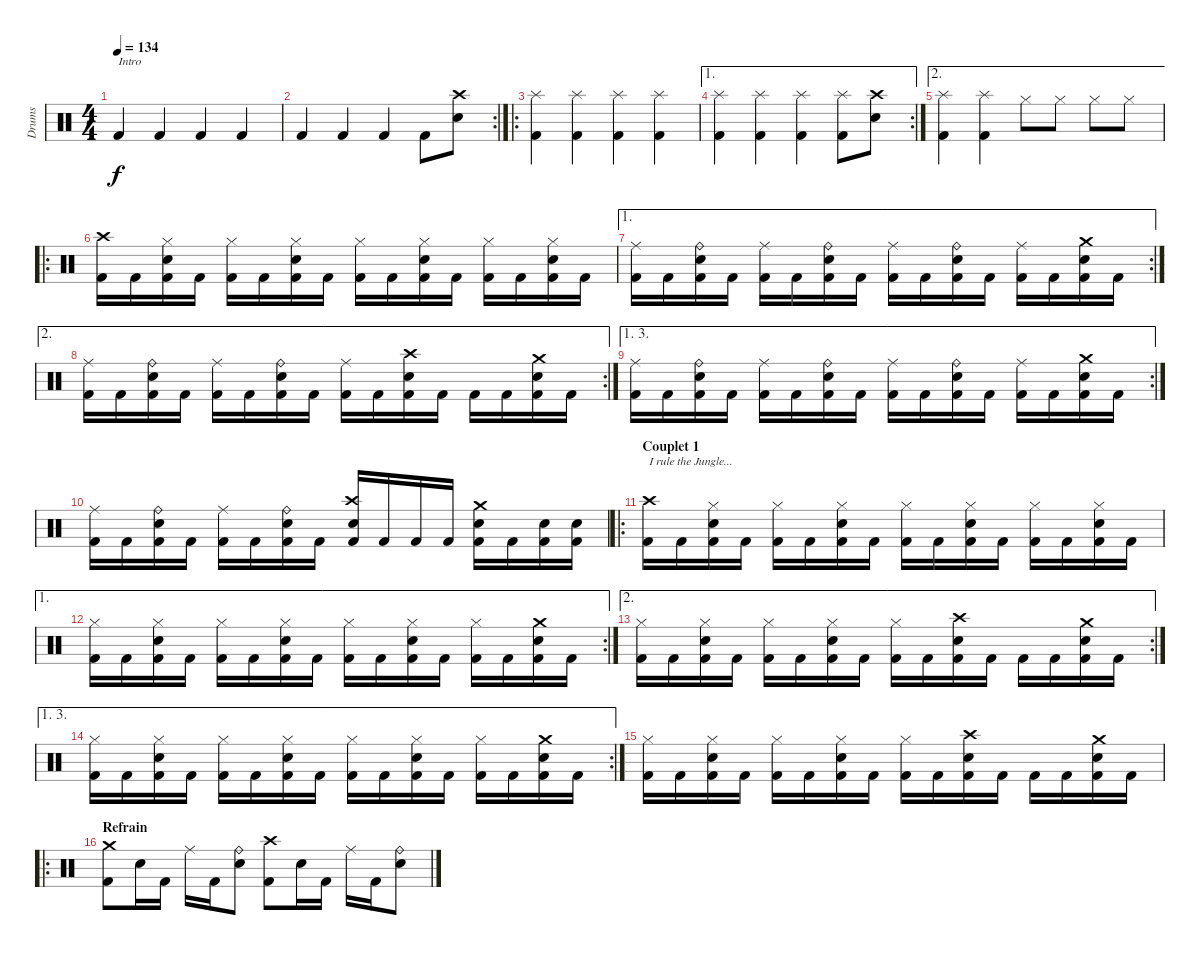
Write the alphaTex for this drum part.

\track ("Drums" "Drums") {instrument percussion}
\staff {score}
\articulation defaults
\ts (4 4)
\tempo 134
\clef neutral
\ks c "Kick (hit) 2".4{txt "Intro" dy f} "Kick (hit) 2".4 "Kick (hit) 2".4 "Kick (hit) 2".4
|
\rc 2 "Kick (hit) 2".4 "Kick (hit) 2".4 "Kick (hit) 2".4 "Kick (hit) 2".8
("Crash high (hit)" "Electric Snare (hit)").8 |
\ro
("Splash (hit)" "Kick (hit) 2").4 ("Splash (hit)" "Kick (hit) 2").4 ("Splash (hit)" "Kick (hit) 2").4 ("Splash (hit)" "Kick (hit) 2").4 |
\ae 1
\rc 2
("Splash (hit)" "Kick (hit) 2").4 ("Splash (hit)" "Kick (hit) 2").4 ("Splash (hit)" "Kick (hit) 2").4 ("Splash (hit)" "Kick (hit) 2").8 ("Crash high (hit)" "Electric Snare (hit)").8 |
\ae 2
("Splash (hit)" "Kick (hit) 2").4 ("Splash (hit)" "Kick (hit) 2").4 "Hi-Hat (closed)".8 "Hi-Hat (closed)".8 "Hi-Hat (closed)".8 "Hi-Hat (closed)".8 |
\ro
("Crash high (hit)" "Kick (hit) 2").16 "Kick (hit) 2".16 ("Hi-Hat (closed)" "Electric Snare (hit)" "Kick (hit) 2").16 "Kick (hit) 2".16 ("Hi-Hat (closed)" "Kick (hit) 2").16 "Kick (hit) 2".16 ("Hi-Hat (closed)" "Electric Snare (hit)" "Kick (hit) 2").16 "Kick (hit) 2".16 ("Hi-Hat (closed)" "Kick (hit) 2").16 "Kick (hit) 2".16 ("Hi-Hat (closed)" "Electric Snare (hit)" "Kick (hit) 2").16 "Kick (hit) 2".16 ("Hi-Hat (closed)" "Kick (hit) 2").16 "Kick (hit) 2".16 ("Hi-Hat (closed)" "Electric Snare (hit)" "Kick (hit) 2").16 "Kick (hit) 2".16 |
\ae 1
\rc 2
("Ride (middle)" "Kick (hit) 2").16 "Kick (hit) 2".16 ("Ride (bell)" "Electric Snare (hit)" "Kick (hit) 2").16 "Kick (hit) 2".16 ("Ride (middle)" "Kick (hit) 2").16 "Kick (hit) 2".16 ("Ride (bell)" "Electric Snare (hit)" "Kick (hit) 2").16 "Kick (hit) 2".16 ("Ride (middle)" "Kick (hit) 2").16 "Kick (hit) 2".16 ("Ride (bell)" "Electric Snare (hit)" "Kick (hit) 2").16 "Kick (hit) 2".16 ("Ride (middle)" "Kick (hit) 2").16 "Kick (hit) 2".16 ("Crash medium (hit)" "Electric Snare (hit)" "Kick (hit) 2").16 "Kick (hit) 2".16 |
\ae 2
\rc 2
("Ride (middle)" "Kick (hit) 2").16 "Kick (hit) 2".16 ("Ride (bell)" "Electric Snare (hit)" "Kick (hit) 2").16 "Kick (hit) 2".16 ("Ride (middle)" "Kick (hit) 2").16 "Kick (hit) 2".16 ("Ride (bell)" "Electric Snare (hit)" "Kick (hit) 2").16 "Kick (hit) 2".16 ("Ride (middle)" "Kick (hit) 2").16 "Kick (hit) 2".16 ("Crash high (hit)" "Electric Snare (hit)" "Kick (hit) 2").16 "Kick (hit) 2".16 "Kick (hit) 2".16 "Kick (hit) 2".16 ("Crash medium (hit)" "Electric Snare (hit)" "Kick (hit) 2").16 "Kick (hit) 2".16 |
\ae (1 3)
\rc 2
("Ride (middle)" "Kick (hit) 2").16 "Kick (hit) 2".16 ("Ride (bell)" "Electric Snare (hit)" "Kick (hit) 2").16 "Kick (hit) 2".16 ("Ride (middle)" "Kick (hit) 2").16 "Kick (hit) 2".16 ("Ride (bell)" "Electric Snare (hit)" "Kick (hit) 2").16 "Kick (hit) 2".16 ("Ride (middle)" "Kick (hit) 2").16 "Kick (hit) 2".16 ("Ride (bell)" "Electric Snare (hit)" "Kick (hit) 2").16 "Kick (hit) 2".16 ("Ride (middle)" "Kick (hit) 2").16 "Kick (hit) 2".16 ("Crash medium (hit)" "Electric Snare (hit)" "Kick (hit) 2").16 "Kick (hit) 2".16 |
("Ride (middle)" "Kick (hit) 2").16 "Kick (hit) 2".16 ("Ride (bell)" "Electric Snare (hit)" "Kick (hit) 2").16 "Kick (hit) 2".16 ("Ride (middle)" "Kick (hit) 2").16 "Kick (hit) 2".16 ("Ride (bell)" "Electric Snare (hit)" "Kick (hit) 2").16 "Kick (hit) 2".16 ("Crash high (hit)" "Electric Snare (hit)" "Kick (hit) 2").16 "Kick (hit) 2".16 "Kick (hit) 2".16 "Kick (hit) 2".16 ("Crash medium (hit)" "Electric Snare (hit)" "Kick (hit) 2").16 "Kick (hit) 2".16 ("Electric Snare (hit)" "Kick (hit) 2").16 ("Electric Snare (hit)" "Kick (hit) 2").16 |
\ro
\section ("" "Couplet 1")
("Crash high (hit)" "Kick (hit) 2").16{txt "I rule the Jungle..."} "Kick (hit) 2".16 ("Hi-Hat (closed)" "Electric Snare (hit)" "Kick (hit) 2").16 "Kick (hit) 2".16 ("Hi-Hat (closed)" "Kick (hit) 2").16 "Kick (hit) 2".16 ("Hi-Hat (closed)" "Electric Snare (hit)" "Kick (hit) 2").16 "Kick (hit) 2".16 ("Hi-Hat (closed)" "Kick (hit) 2").16 "Kick (hit) 2".16 ("Hi-Hat (closed)" "Electric Snare (hit)" "Kick (hit) 2").16 "Kick (hit) 2".16 ("Hi-Hat (closed)" "Kick (hit) 2").16 "Kick (hit) 2".16 ("Hi-Hat (closed)" "Electric Snare (hit)" "Kick (hit) 2").16 "Kick (hit) 2".16 |
\ae 1
\rc 2
("Hi-Hat (closed)" "Kick (hit) 2").16 "Kick (hit) 2".16 ("Hi-Hat (closed)" "Electric Snare (hit)" "Kick (hit) 2").16 "Kick (hit) 2".16 ("Hi-Hat (closed)" "Kick (hit) 2").16 "Kick (hit) 2".16 ("Hi-Hat (closed)" "Electric Snare (hit)" "Kick (hit) 2").16 "Kick (hit) 2".16 ("Hi-Hat (closed)" "Kick (hit) 2").16 "Kick (hit) 2".16 ("Hi-Hat (closed)" "Electric Snare (hit)" "Kick (hit) 2").16 "Kick (hit) 2".16 ("Hi-Hat (closed)" "Kick (hit) 2").16 "Kick (hit) 2".16 ("Crash medium (hit)" "Electric Snare (hit)" "Kick (hit) 2").16 "Kick (hit) 2".16 |
\ae 2
\rc 2
("Hi-Hat (closed)" "Kick (hit) 2").16 "Kick (hit) 2".16 ("Hi-Hat (closed)" "Electric Snare (hit)" "Kick (hit) 2").16 "Kick (hit) 2".16 ("Hi-Hat (closed)" "Kick (hit) 2").16 "Kick (hit) 2".16 ("Hi-Hat (closed)" "Electric Snare (hit)" "Kick (hit) 2").16 "Kick (hit) 2".16 ("Hi-Hat (closed)" "Kick (hit) 2").16 "Kick (hit) 2".16 ("Crash high (hit)" "Electric Snare (hit)" "Kick (hit) 2").16 "Kick (hit) 2".16 "Kick (hit) 2".16 "Kick (hit) 2".16 ("Crash medium (hit)" "Electric Snare (hit)" "Kick (hit) 2").16 "Kick (hit) 2".16 |
\ae (1 3)
\rc 2
("Hi-Hat (closed)" "Kick (hit) 2").16 "Kick (hit) 2".16 ("Hi-Hat (closed)" "Electric Snare (hit)" "Kick (hit) 2").16 "Kick (hit) 2".16 ("Hi-Hat (closed)" "Kick (hit) 2").16 "Kick (hit) 2".16 ("Hi-Hat (closed)" "Electric Snare (hit)" "Kick (hit) 2").16 "Kick (hit) 2".16 ("Hi-Hat (closed)" "Kick (hit) 2").16 "Kick (hit) 2".16 ("Hi-Hat (closed)" "Electric Snare (hit)" "Kick (hit) 2").16 "Kick (hit) 2".16 ("Hi-Hat (closed)" "Kick (hit) 2").16 "Kick (hit) 2".16 ("Crash medium (hit)" "Electric Snare (hit)" "Kick (hit) 2").16 "Kick (hit) 2".16 |
("Hi-Hat (closed)" "Kick (hit) 2").16 "Kick (hit) 2".16 ("Hi-Hat (closed)" "Electric Snare (hit)" "Kick (hit) 2").16 "Kick (hit) 2".16 ("Hi-Hat (closed)" "Kick (hit) 2").16 "Kick (hit) 2".16 ("Hi-Hat (closed)" "Electric Snare (hit)" "Kick (hit) 2").16 "Kick (hit) 2".16 ("Hi-Hat (closed)" "Kick (hit) 2").16 "Kick (hit) 2".16 ("Crash high (hit)" "Electric Snare (hit)" "Kick (hit) 2").16 "Kick (hit) 2".16 "Kick (hit) 2".16 "Kick (hit) 2".16 ("Crash medium (hit)" "Electric Snare (hit)" "Kick (hit) 2").16 "Kick (hit) 2".16 |
\ro
\section ("" "Refrain")
("Crash medium (hit)" "Kick (hit) 2").8 "Electric Snare (hit)".16 "Kick (hit) 2".16 "Ride (middle)".16 "Kick (hit) 2".16 ("Ride (bell)" "Electric Snare (hit)").8 ("Crash high (hit)" "Kick (hit) 2").8 "Electric Snare (hit)".16 "Kick (hit) 2".16 "Ride (middle)".16 "Kick (hit) 2".16 ("Ride (bell)" "Electric Snare (hit)").8
